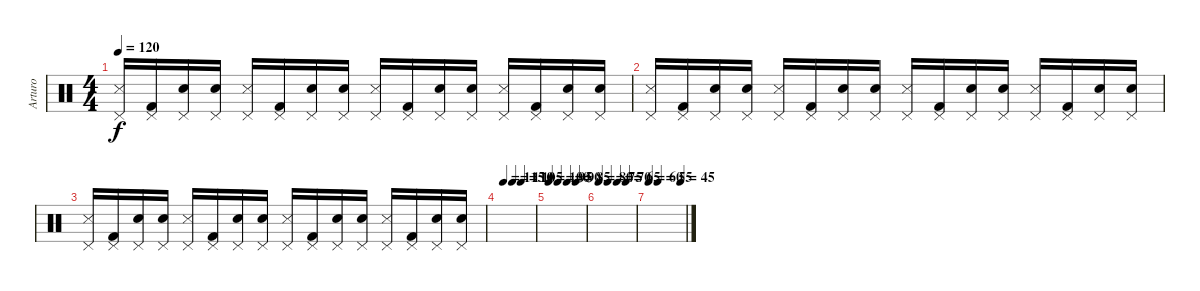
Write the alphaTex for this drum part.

\track ("Arturo" "Arturo") {instrument percussion}
\staff {score}
\articulation defaults
\ts (4 4)
\tempo 120
\clef neutral
\ks c
("Pedal Hi-Hat (hit)" "Snare (side stick) 3").16{dy f} ("Pedal Hi-Hat (hit)" "Kick (hit) 2").16 ("Pedal Hi-Hat (hit)" "Electric Snare (hit)").16 ("Pedal Hi-Hat (hit)" "Electric Snare (hit)").16 ("Pedal Hi-Hat (hit)" "Snare (side stick) 3").16 ("Pedal Hi-Hat (hit)" "Kick (hit) 2").16 ("Pedal Hi-Hat (hit)" "Electric Snare (hit)").16 ("Pedal Hi-Hat (hit)" "Electric Snare (hit)").16 ("Pedal Hi-Hat (hit)" "Snare (side stick) 3").16 ("Pedal Hi-Hat (hit)" "Kick (hit) 2").16 ("Pedal Hi-Hat (hit)" "Electric Snare (hit)").16 ("Pedal Hi-Hat (hit)" "Electric Snare (hit)").16 ("Pedal Hi-Hat (hit)" "Snare (side stick) 3").16 ("Pedal Hi-Hat (hit)" "Kick (hit) 2").16 ("Pedal Hi-Hat (hit)" "Electric Snare (hit)").16 ("Pedal Hi-Hat (hit)" "Electric Snare (hit)").16 |
("Pedal Hi-Hat (hit)" "Snare (side stick) 3").16 ("Pedal Hi-Hat (hit)" "Kick (hit) 2").16 ("Pedal Hi-Hat (hit)" "Electric Snare (hit)").16 ("Pedal Hi-Hat (hit)" "Electric Snare (hit)").16 ("Pedal Hi-Hat (hit)" "Snare (side stick) 3").16 ("Pedal Hi-Hat (hit)" "Kick (hit) 2").16 ("Pedal Hi-Hat (hit)" "Electric Snare (hit)").16 ("Pedal Hi-Hat (hit)" "Electric Snare (hit)").16 ("Pedal Hi-Hat (hit)" "Snare (side stick) 3").16 ("Pedal Hi-Hat (hit)" "Kick (hit) 2").16 ("Pedal Hi-Hat (hit)" "Electric Snare (hit)").16 ("Pedal Hi-Hat (hit)" "Electric Snare (hit)").16 ("Pedal Hi-Hat (hit)" "Snare (side stick) 3").16 ("Pedal Hi-Hat (hit)" "Kick (hit) 2").16 ("Pedal Hi-Hat (hit)" "Electric Snare (hit)").16 ("Pedal Hi-Hat (hit)" "Electric Snare (hit)").16 |
("Pedal Hi-Hat (hit)" "Snare (side stick) 3").16 ("Pedal Hi-Hat (hit)" "Kick (hit) 2").16 ("Pedal Hi-Hat (hit)" "Electric Snare (hit)").16 ("Pedal Hi-Hat (hit)" "Electric Snare (hit)").16 ("Pedal Hi-Hat (hit)" "Snare (side stick) 3").16 ("Pedal Hi-Hat (hit)" "Kick (hit) 2").16 ("Pedal Hi-Hat (hit)" "Electric Snare (hit)").16 ("Pedal Hi-Hat (hit)" "Electric Snare (hit)").16 ("Pedal Hi-Hat (hit)" "Snare (side stick) 3").16 ("Pedal Hi-Hat (hit)" "Kick (hit) 2").16 ("Pedal Hi-Hat (hit)" "Electric Snare (hit)").16 ("Pedal Hi-Hat (hit)" "Electric Snare (hit)").16 ("Pedal Hi-Hat (hit)" "Snare (side stick) 3").16 ("Pedal Hi-Hat (hit)" "Kick (hit) 2").16 ("Pedal Hi-Hat (hit)" "Electric Snare (hit)").16 ("Pedal Hi-Hat (hit)" "Electric Snare (hit)").16 |
\tempo (115 0.125)
\tempo (110 0.375)
\tempo (105 0.625)
|
\tempo 100
\tempo (95 0.25)
\tempo (90 0.5)
\tempo (85 0.75)
|
\tempo 80
\tempo (75 0.25)
\tempo (70 0.5)
\tempo (65 0.75)
|
\tempo 60
\tempo (55 0.25)
\tempo (45 0.875)
